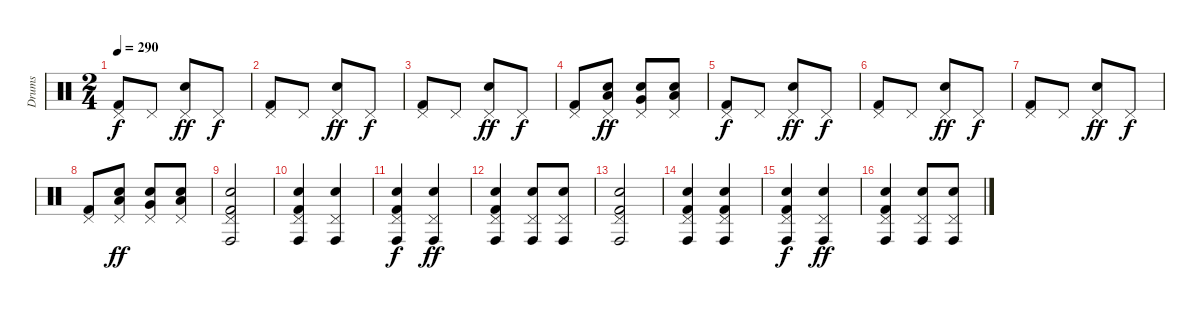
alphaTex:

\track ("Drums" "Drums") {instrument percussion}
\staff {score}
\articulation defaults
\ts (2 4)
\tempo 290
\clef neutral
\ks c
("Pedal Hi-Hat (hit)" "Kick (hit) 2").8{dy f} "Pedal Hi-Hat (hit)".8 ("Pedal Hi-Hat (hit)" "Electric Snare (hit)").8{dy ff} "Pedal Hi-Hat (hit)".8{dy f} |
("Pedal Hi-Hat (hit)" "Kick (hit) 2").8 "Pedal Hi-Hat (hit)".8 ("Pedal Hi-Hat (hit)" "Electric Snare (hit)").8{dy ff} "Pedal Hi-Hat (hit)".8{dy f} |
("Pedal Hi-Hat (hit)" "Kick (hit) 2").8 "Pedal Hi-Hat (hit)".8 ("Pedal Hi-Hat (hit)" "Electric Snare (hit)").8{dy ff} "Pedal Hi-Hat (hit)".8{dy f} |
("Pedal Hi-Hat (hit)" "Kick (hit) 2").8 ("Pedal Hi-Hat (hit)" "Low Floor Tom (hit)" "Electric Snare (hit)").8{dy ff} ("Pedal Hi-Hat (hit)" "Very Low Tom (hit)" "Electric Snare (hit)").8 ("Pedal Hi-Hat (hit)" "Low Tom (hit)" "Electric Snare (hit)").8 |
("Pedal Hi-Hat (hit)" "Kick (hit) 2").8{dy f} "Pedal Hi-Hat (hit)".8 ("Pedal Hi-Hat (hit)" "Electric Snare (hit)").8{dy ff} "Pedal Hi-Hat (hit)".8{dy f} |
("Pedal Hi-Hat (hit)" "Kick (hit) 2").8 "Pedal Hi-Hat (hit)".8 ("Pedal Hi-Hat (hit)" "Electric Snare (hit)").8{dy ff} "Pedal Hi-Hat (hit)".8{dy f} |
("Pedal Hi-Hat (hit)" "Kick (hit) 2").8 "Pedal Hi-Hat (hit)".8 ("Pedal Hi-Hat (hit)" "Electric Snare (hit)").8{dy ff} "Pedal Hi-Hat (hit)".8{dy f} |
("Pedal Hi-Hat (hit)" "Kick (hit) 2").8 ("Pedal Hi-Hat (hit)" "Low Tom (hit)" "Electric Snare (hit)").8{dy ff} ("Pedal Hi-Hat (hit)" "Very Low Tom (hit)" "Electric Snare (hit)").8 ("Pedal Hi-Hat (hit)" "Low Floor Tom (hit)" "Electric Snare (hit)").8 |
("Pedal Hi-Hat (hit)" "Conga high (hit)" "Electric Snare (hit)" "Kick (hit) 2").2 |
("Pedal Hi-Hat (hit)" "Conga high (hit)" "Electric Snare (hit)" "Kick (hit) 2").4 ("Pedal Hi-Hat (hit)" "Conga high (hit)" "Electric Snare (hit)").4 |
("Pedal Hi-Hat (hit)" "Conga high (hit)" "Electric Snare (hit)" "Kick (hit) 2").4{dy f} ("Pedal Hi-Hat (hit)" "Conga high (hit)" "Electric Snare (hit)").4{dy ff} |
("Pedal Hi-Hat (hit)" "Conga high (hit)" "Electric Snare (hit)" "Kick (hit) 2").4 ("Pedal Hi-Hat (hit)" "Conga high (hit)" "Electric Snare (hit)").8 ("Pedal Hi-Hat (hit)" "Conga high (hit)" "Electric Snare (hit)").8 |
("Pedal Hi-Hat (hit)" "Conga high (hit)" "Electric Snare (hit)" "Kick (hit) 2").2 |
("Pedal Hi-Hat (hit)" "Conga high (hit)" "Electric Snare (hit)" "Kick (hit) 2").4 ("Pedal Hi-Hat (hit)" "Conga high (hit)" "Electric Snare (hit)" "Kick (hit) 2").4 |
("Pedal Hi-Hat (hit)" "Conga high (hit)" "Electric Snare (hit)" "Kick (hit) 2").4{dy f} ("Pedal Hi-Hat (hit)" "Conga high (hit)" "Electric Snare (hit)").4{dy ff} |
("Pedal Hi-Hat (hit)" "Conga high (hit)" "Electric Snare (hit)" "Kick (hit) 2").4 ("Pedal Hi-Hat (hit)" "Conga high (hit)" "Electric Snare (hit)").8 ("Pedal Hi-Hat (hit)" "Conga high (hit)" "Electric Snare (hit)").8
